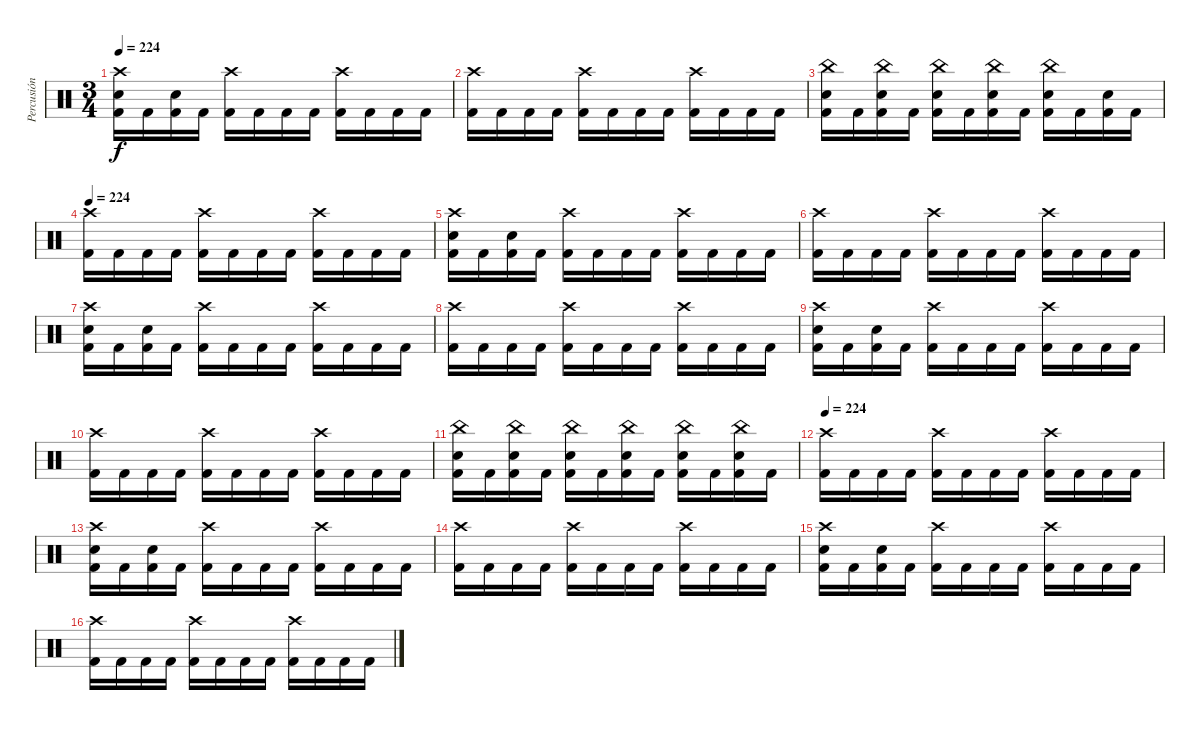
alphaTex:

\track ("Percusión" "Percusión") {instrument percussion}
\staff {score}
\articulation defaults
\ts (3 4)
\tempo 224
\clef neutral
\ks c
("Crash high (hit)" "Electric Snare (hit)" "Kick (hit) 2").16{dy f} "Kick (hit) 2".16 ("Electric Snare (hit)" "Kick (hit) 2").16 "Kick (hit) 2".16 ("Crash high (hit)" "Kick (hit) 2").16 "Kick (hit) 2".16 "Kick (hit) 2".16 "Kick (hit) 2".16 ("Crash high (hit)" "Kick (hit) 2").16 "Kick (hit) 2".16 "Kick (hit) 2".16 "Kick (hit) 2".16 |
("Crash high (hit)" "Kick (hit) 2").16 "Kick (hit) 2".16 "Kick (hit) 2".16 "Kick (hit) 2".16 ("Crash high (hit)" "Kick (hit) 2").16 "Kick (hit) 2".16 "Kick (hit) 2".16 "Kick (hit) 2".16 ("Crash high (hit)" "Kick (hit) 2").16 "Kick (hit) 2".16 "Kick (hit) 2".16 "Kick (hit) 2".16 |
("China (hit)" "Electric Snare (hit)" "Kick (hit) 2").16 "Kick (hit) 2".16 ("China (hit)" "Electric Snare (hit)" "Kick (hit) 2").16 "Kick (hit) 2".16 ("China (hit)" "Electric Snare (hit)" "Kick (hit) 2").16 "Kick (hit) 2".16 ("China (hit)" "Electric Snare (hit)" "Kick (hit) 2").16 "Kick (hit) 2".16 ("China (hit)" "Electric Snare (hit)" "Kick (hit) 2").16 "Kick (hit) 2".16 ("Electric Snare (hit)" "Kick (hit) 2").16 "Kick (hit) 2".16 |
\tempo 224
("Crash high (hit)" "Kick (hit) 2").16 "Kick (hit) 2".16 "Kick (hit) 2".16 "Kick (hit) 2".16 ("Crash high (hit)" "Kick (hit) 2").16 "Kick (hit) 2".16 "Kick (hit) 2".16 "Kick (hit) 2".16 ("Crash high (hit)" "Kick (hit) 2").16 "Kick (hit) 2".16 "Kick (hit) 2".16 "Kick (hit) 2".16 |
("Crash high (hit)" "Electric Snare (hit)" "Kick (hit) 2").16 "Kick (hit) 2".16 ("Electric Snare (hit)" "Kick (hit) 2").16 "Kick (hit) 2".16 ("Crash high (hit)" "Kick (hit) 2").16 "Kick (hit) 2".16 "Kick (hit) 2".16 "Kick (hit) 2".16 ("Crash high (hit)" "Kick (hit) 2").16 "Kick (hit) 2".16 "Kick (hit) 2".16 "Kick (hit) 2".16 |
("Crash high (hit)" "Kick (hit) 2").16 "Kick (hit) 2".16 "Kick (hit) 2".16 "Kick (hit) 2".16 ("Crash high (hit)" "Kick (hit) 2").16 "Kick (hit) 2".16 "Kick (hit) 2".16 "Kick (hit) 2".16 ("Crash high (hit)" "Kick (hit) 2").16 "Kick (hit) 2".16 "Kick (hit) 2".16 "Kick (hit) 2".16 |
("Crash high (hit)" "Electric Snare (hit)" "Kick (hit) 2").16 "Kick (hit) 2".16 ("Electric Snare (hit)" "Kick (hit) 2").16 "Kick (hit) 2".16 ("Crash high (hit)" "Kick (hit) 2").16 "Kick (hit) 2".16 "Kick (hit) 2".16 "Kick (hit) 2".16 ("Crash high (hit)" "Kick (hit) 2").16 "Kick (hit) 2".16 "Kick (hit) 2".16 "Kick (hit) 2".16 |
("Crash high (hit)" "Kick (hit) 2").16 "Kick (hit) 2".16 "Kick (hit) 2".16 "Kick (hit) 2".16 ("Crash high (hit)" "Kick (hit) 2").16 "Kick (hit) 2".16 "Kick (hit) 2".16 "Kick (hit) 2".16 ("Crash high (hit)" "Kick (hit) 2").16 "Kick (hit) 2".16 "Kick (hit) 2".16 "Kick (hit) 2".16 |
("Crash high (hit)" "Electric Snare (hit)" "Kick (hit) 2").16 "Kick (hit) 2".16 ("Electric Snare (hit)" "Kick (hit) 2").16 "Kick (hit) 2".16 ("Crash high (hit)" "Kick (hit) 2").16 "Kick (hit) 2".16 "Kick (hit) 2".16 "Kick (hit) 2".16 ("Crash high (hit)" "Kick (hit) 2").16 "Kick (hit) 2".16 "Kick (hit) 2".16 "Kick (hit) 2".16 |
("Crash high (hit)" "Kick (hit) 2").16 "Kick (hit) 2".16 "Kick (hit) 2".16 "Kick (hit) 2".16 ("Crash high (hit)" "Kick (hit) 2").16 "Kick (hit) 2".16 "Kick (hit) 2".16 "Kick (hit) 2".16 ("Crash high (hit)" "Kick (hit) 2").16 "Kick (hit) 2".16 "Kick (hit) 2".16 "Kick (hit) 2".16 |
("China (hit)" "Electric Snare (hit)" "Kick (hit) 2").16 "Kick (hit) 2".16 ("China (hit)" "Electric Snare (hit)" "Kick (hit) 2").16 "Kick (hit) 2".16 ("China (hit)" "Electric Snare (hit)" "Kick (hit) 2").16 "Kick (hit) 2".16 ("China (hit)" "Electric Snare (hit)" "Kick (hit) 2").16 "Kick (hit) 2".16 ("China (hit)" "Electric Snare (hit)" "Kick (hit) 2").16 "Kick (hit) 2".16 ("China (hit)" "Electric Snare (hit)" "Kick (hit) 2").16 "Kick (hit) 2".16 |
\tempo 224
("Crash high (hit)" "Kick (hit) 2").16 "Kick (hit) 2".16 "Kick (hit) 2".16 "Kick (hit) 2".16 ("Crash high (hit)" "Kick (hit) 2").16 "Kick (hit) 2".16 "Kick (hit) 2".16 "Kick (hit) 2".16 ("Crash high (hit)" "Kick (hit) 2").16 "Kick (hit) 2".16 "Kick (hit) 2".16 "Kick (hit) 2".16 |
("Crash high (hit)" "Electric Snare (hit)" "Kick (hit) 2").16 "Kick (hit) 2".16 ("Electric Snare (hit)" "Kick (hit) 2").16 "Kick (hit) 2".16 ("Crash high (hit)" "Kick (hit) 2").16 "Kick (hit) 2".16 "Kick (hit) 2".16 "Kick (hit) 2".16 ("Crash high (hit)" "Kick (hit) 2").16 "Kick (hit) 2".16 "Kick (hit) 2".16 "Kick (hit) 2".16 |
("Crash high (hit)" "Kick (hit) 2").16 "Kick (hit) 2".16 "Kick (hit) 2".16 "Kick (hit) 2".16 ("Crash high (hit)" "Kick (hit) 2").16 "Kick (hit) 2".16 "Kick (hit) 2".16 "Kick (hit) 2".16 ("Crash high (hit)" "Kick (hit) 2").16 "Kick (hit) 2".16 "Kick (hit) 2".16 "Kick (hit) 2".16 |
("Crash high (hit)" "Electric Snare (hit)" "Kick (hit) 2").16 "Kick (hit) 2".16 ("Electric Snare (hit)" "Kick (hit) 2").16 "Kick (hit) 2".16 ("Crash high (hit)" "Kick (hit) 2").16 "Kick (hit) 2".16 "Kick (hit) 2".16 "Kick (hit) 2".16 ("Crash high (hit)" "Kick (hit) 2").16 "Kick (hit) 2".16 "Kick (hit) 2".16 "Kick (hit) 2".16 |
("Crash high (hit)" "Kick (hit) 2").16 "Kick (hit) 2".16 "Kick (hit) 2".16 "Kick (hit) 2".16 ("Crash high (hit)" "Kick (hit) 2").16 "Kick (hit) 2".16 "Kick (hit) 2".16 "Kick (hit) 2".16 ("Crash high (hit)" "Kick (hit) 2").16 "Kick (hit) 2".16 "Kick (hit) 2".16 "Kick (hit) 2".16
